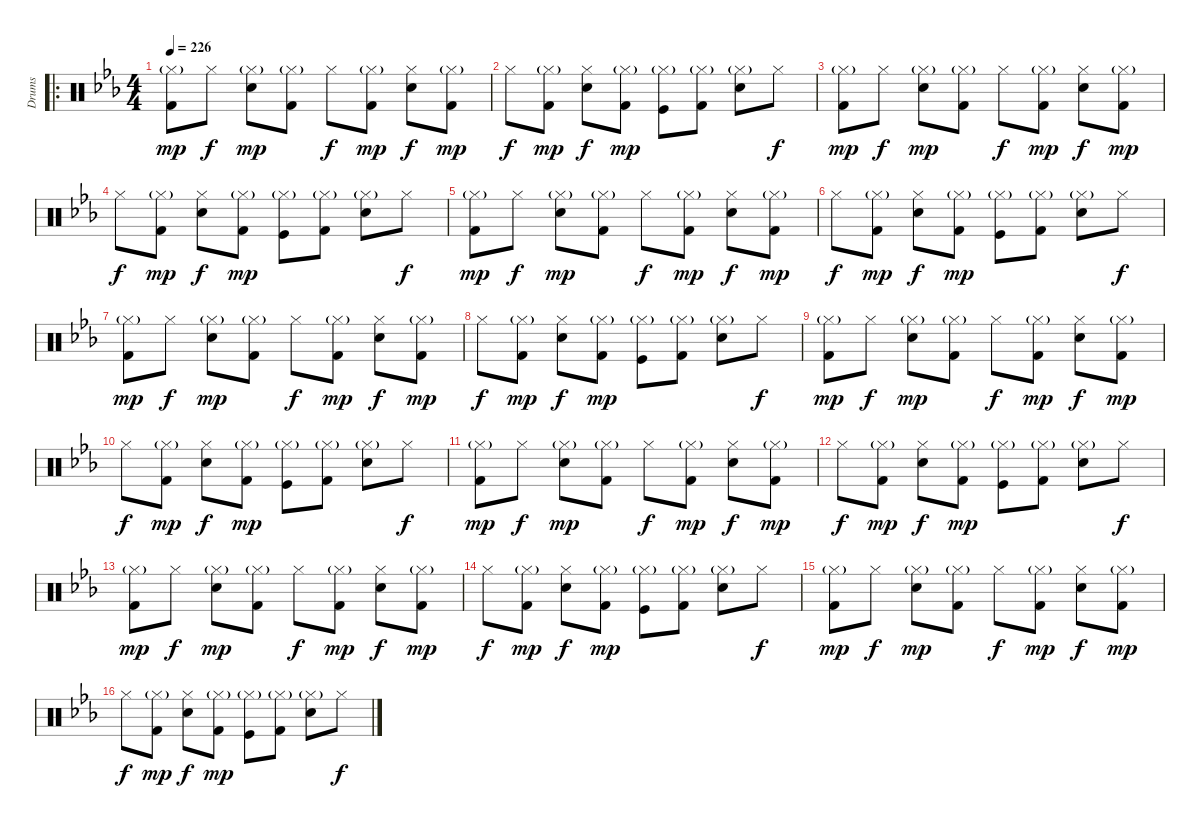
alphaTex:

\track ("Drums" "Drums") {instrument percussion}
\staff {score}
\articulation defaults
\ro
\ts (4 4)
\tempo 226
\clef neutral
\ks cminor
("Hi-Hat (closed)"{g} "Kick (hit) 2").8{dy mp} "Hi-Hat (closed)".8{dy f} ("Hi-Hat (closed)"{g} "Snare (hit) 2").8{dy mp} ("Hi-Hat (closed)"{g} "Kick (hit) 2").8 "Hi-Hat (closed)".8{dy f} ("Hi-Hat (closed)"{g} "Kick (hit) 2").8{dy mp} ("Hi-Hat (closed)" "Snare (hit) 2").8{dy f} ("Hi-Hat (closed)"{g} "Kick (hit) 2").8{dy mp} |
"Hi-Hat (closed)".8{dy f} ("Hi-Hat (closed)"{g} "Kick (hit) 2").8{dy mp} ("Hi-Hat (closed)" "Snare (hit) 2").8{dy f} ("Hi-Hat (closed)"{g} "Kick (hit) 2").8{dy mp} ("Hi-Hat (closed)"{g} "Kick (hit)").8 ("Hi-Hat (closed)"{g} "Kick (hit) 2").8 ("Hi-Hat (closed)"{g} "Snare (hit) 2").8 "Hi-Hat (closed)".8{dy f} |
("Hi-Hat (closed)"{g} "Kick (hit) 2").8{dy mp} "Hi-Hat (closed)".8{dy f} ("Hi-Hat (closed)"{g} "Snare (hit) 2").8{dy mp} ("Hi-Hat (closed)"{g} "Kick (hit) 2").8 "Hi-Hat (closed)".8{dy f} ("Hi-Hat (closed)"{g} "Kick (hit) 2").8{dy mp} ("Hi-Hat (closed)" "Snare (hit) 2").8{dy f} ("Hi-Hat (closed)"{g} "Kick (hit) 2").8{dy mp} |
"Hi-Hat (closed)".8{dy f} ("Hi-Hat (closed)"{g} "Kick (hit) 2").8{dy mp} ("Hi-Hat (closed)" "Snare (hit) 2").8{dy f} ("Hi-Hat (closed)"{g} "Kick (hit) 2").8{dy mp} ("Hi-Hat (closed)"{g} "Kick (hit)").8 ("Hi-Hat (closed)"{g} "Kick (hit) 2").8 ("Hi-Hat (closed)"{g} "Snare (hit) 2").8 "Hi-Hat (closed)".8{dy f} |
("Hi-Hat (closed)"{g} "Kick (hit) 2").8{dy mp} "Hi-Hat (closed)".8{dy f} ("Hi-Hat (closed)"{g} "Snare (hit) 2").8{dy mp} ("Hi-Hat (closed)"{g} "Kick (hit) 2").8 "Hi-Hat (closed)".8{dy f} ("Hi-Hat (closed)"{g} "Kick (hit) 2").8{dy mp} ("Hi-Hat (closed)" "Snare (hit) 2").8{dy f} ("Hi-Hat (closed)"{g} "Kick (hit) 2").8{dy mp} |
"Hi-Hat (closed)".8{dy f} ("Hi-Hat (closed)"{g} "Kick (hit) 2").8{dy mp} ("Hi-Hat (closed)" "Snare (hit) 2").8{dy f} ("Hi-Hat (closed)"{g} "Kick (hit) 2").8{dy mp} ("Hi-Hat (closed)"{g} "Kick (hit)").8 ("Hi-Hat (closed)"{g} "Kick (hit) 2").8 ("Hi-Hat (closed)"{g} "Snare (hit) 2").8 "Hi-Hat (closed)".8{dy f} |
("Hi-Hat (closed)"{g} "Kick (hit) 2").8{dy mp} "Hi-Hat (closed)".8{dy f} ("Hi-Hat (closed)"{g} "Snare (hit) 2").8{dy mp} ("Hi-Hat (closed)"{g} "Kick (hit) 2").8 "Hi-Hat (closed)".8{dy f} ("Hi-Hat (closed)"{g} "Kick (hit) 2").8{dy mp} ("Hi-Hat (closed)" "Snare (hit) 2").8{dy f} ("Hi-Hat (closed)"{g} "Kick (hit) 2").8{dy mp} |
"Hi-Hat (closed)".8{dy f} ("Hi-Hat (closed)"{g} "Kick (hit) 2").8{dy mp} ("Hi-Hat (closed)" "Snare (hit) 2").8{dy f} ("Hi-Hat (closed)"{g} "Kick (hit) 2").8{dy mp} ("Hi-Hat (closed)"{g} "Kick (hit)").8 ("Hi-Hat (closed)"{g} "Kick (hit) 2").8 ("Hi-Hat (closed)"{g} "Snare (hit) 2").8 "Hi-Hat (closed)".8{dy f} |
("Hi-Hat (closed)"{g} "Kick (hit) 2").8{dy mp} "Hi-Hat (closed)".8{dy f} ("Hi-Hat (closed)"{g} "Snare (hit) 2").8{dy mp} ("Hi-Hat (closed)"{g} "Kick (hit) 2").8 "Hi-Hat (closed)".8{dy f} ("Hi-Hat (closed)"{g} "Kick (hit) 2").8{dy mp} ("Hi-Hat (closed)" "Snare (hit) 2").8{dy f} ("Hi-Hat (closed)"{g} "Kick (hit) 2").8{dy mp} |
"Hi-Hat (closed)".8{dy f} ("Hi-Hat (closed)"{g} "Kick (hit) 2").8{dy mp} ("Hi-Hat (closed)" "Snare (hit) 2").8{dy f} ("Hi-Hat (closed)"{g} "Kick (hit) 2").8{dy mp} ("Hi-Hat (closed)"{g} "Kick (hit)").8 ("Hi-Hat (closed)"{g} "Kick (hit) 2").8 ("Hi-Hat (closed)"{g} "Snare (hit) 2").8 "Hi-Hat (closed)".8{dy f} |
("Hi-Hat (closed)"{g} "Kick (hit) 2").8{dy mp} "Hi-Hat (closed)".8{dy f} ("Hi-Hat (closed)"{g} "Snare (hit) 2").8{dy mp} ("Hi-Hat (closed)"{g} "Kick (hit) 2").8 "Hi-Hat (closed)".8{dy f} ("Hi-Hat (closed)"{g} "Kick (hit) 2").8{dy mp} ("Hi-Hat (closed)" "Snare (hit) 2").8{dy f} ("Hi-Hat (closed)"{g} "Kick (hit) 2").8{dy mp} |
"Hi-Hat (closed)".8{dy f} ("Hi-Hat (closed)"{g} "Kick (hit) 2").8{dy mp} ("Hi-Hat (closed)" "Snare (hit) 2").8{dy f} ("Hi-Hat (closed)"{g} "Kick (hit) 2").8{dy mp} ("Hi-Hat (closed)"{g} "Kick (hit)").8 ("Hi-Hat (closed)"{g} "Kick (hit) 2").8 ("Hi-Hat (closed)"{g} "Snare (hit) 2").8 "Hi-Hat (closed)".8{dy f} |
("Hi-Hat (closed)"{g} "Kick (hit) 2").8{dy mp} "Hi-Hat (closed)".8{dy f} ("Hi-Hat (closed)"{g} "Snare (hit) 2").8{dy mp} ("Hi-Hat (closed)"{g} "Kick (hit) 2").8 "Hi-Hat (closed)".8{dy f} ("Hi-Hat (closed)"{g} "Kick (hit) 2").8{dy mp} ("Hi-Hat (closed)" "Snare (hit) 2").8{dy f} ("Hi-Hat (closed)"{g} "Kick (hit) 2").8{dy mp} |
"Hi-Hat (closed)".8{dy f} ("Hi-Hat (closed)"{g} "Kick (hit) 2").8{dy mp} ("Hi-Hat (closed)" "Snare (hit) 2").8{dy f} ("Hi-Hat (closed)"{g} "Kick (hit) 2").8{dy mp} ("Hi-Hat (closed)"{g} "Kick (hit)").8 ("Hi-Hat (closed)"{g} "Kick (hit) 2").8 ("Hi-Hat (closed)"{g} "Snare (hit) 2").8 "Hi-Hat (closed)".8{dy f} |
("Hi-Hat (closed)"{g} "Kick (hit) 2").8{dy mp} "Hi-Hat (closed)".8{dy f} ("Hi-Hat (closed)"{g} "Snare (hit) 2").8{dy mp} ("Hi-Hat (closed)"{g} "Kick (hit) 2").8 "Hi-Hat (closed)".8{dy f} ("Hi-Hat (closed)"{g} "Kick (hit) 2").8{dy mp} ("Hi-Hat (closed)" "Snare (hit) 2").8{dy f} ("Hi-Hat (closed)"{g} "Kick (hit) 2").8{dy mp} |
"Hi-Hat (closed)".8{dy f} ("Hi-Hat (closed)"{g} "Kick (hit) 2").8{dy mp} ("Hi-Hat (closed)" "Snare (hit) 2").8{dy f} ("Hi-Hat (closed)"{g} "Kick (hit) 2").8{dy mp} ("Hi-Hat (closed)"{g} "Kick (hit)").8 ("Hi-Hat (closed)"{g} "Kick (hit) 2").8 ("Hi-Hat (closed)"{g} "Snare (hit) 2").8 "Hi-Hat (closed)".8{dy f}
